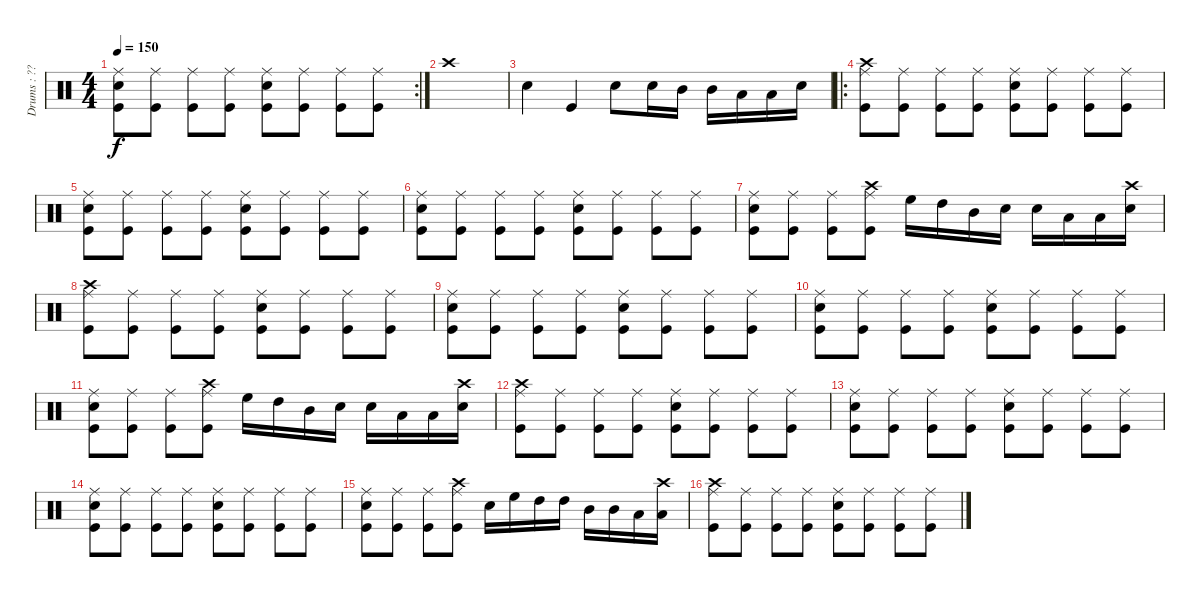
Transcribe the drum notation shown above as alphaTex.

\track ("Drums : ???" "Drums : ??") {instrument percussion}
\staff {score}
\articulation defaults
\rc 2
\ts (4 4)
\tempo 150
\clef neutral
\ks c
("Snare (hit) 2" "Ride (middle)" "Kick (hit)").8{dy f} ("Ride (middle)" "Kick (hit)").8 ("Ride (middle)" "Kick (hit)").8 ("Ride (middle)" "Kick (hit)").8 ("Snare (hit) 2" "Ride (middle)" "Kick (hit)").8 ("Ride (middle)" "Kick (hit)").8 ("Ride (middle)" "Kick (hit)").8 ("Ride (middle)" "Kick (hit)").8 |
"Crash high (hit)".1 |
"Snare (hit) 2".4 "Kick (hit)".4 "Snare (hit) 2".8 "Snare (hit) 2".16 "Mid Tom (hit)".16 "Mid Tom (hit)".16 "Low Tom (hit)".16 "Low Tom (hit)".16 "Snare (hit) 2".16 |
\ro
("Crash high (hit)" "Ride (middle)" "Kick (hit)").8 ("Ride (middle)" "Kick (hit)").8 ("Ride (middle)" "Kick (hit)").8 ("Ride (middle)" "Kick (hit)").8 ("Snare (hit) 2" "Ride (middle)" "Kick (hit)").8 ("Ride (middle)" "Kick (hit)").8 ("Ride (middle)" "Kick (hit)").8 ("Ride (middle)" "Kick (hit)").8 |
("Snare (hit) 2" "Ride (middle)" "Kick (hit)").8 ("Ride (middle)" "Kick (hit)").8 ("Ride (middle)" "Kick (hit)").8 ("Ride (middle)" "Kick (hit)").8 ("Snare (hit) 2" "Ride (middle)" "Kick (hit)").8 ("Ride (middle)" "Kick (hit)").8 ("Ride (middle)" "Kick (hit)").8 ("Ride (middle)" "Kick (hit)").8 |
("Snare (hit) 2" "Ride (middle)" "Kick (hit)").8 ("Ride (middle)" "Kick (hit)").8 ("Ride (middle)" "Kick (hit)").8 ("Ride (middle)" "Kick (hit)").8 ("Snare (hit) 2" "Ride (middle)" "Kick (hit)").8 ("Ride (middle)" "Kick (hit)").8 ("Ride (middle)" "Kick (hit)").8 ("Ride (middle)" "Kick (hit)").8 |
("Snare (hit) 2" "Ride (middle)" "Kick (hit)").8 ("Ride (middle)" "Kick (hit)").8 ("Ride (middle)" "Kick (hit)").8 ("Crash high (hit)" "Ride (middle)" "Kick (hit)").8 "High Floor Tom (hit)".16 "High Tom (hit)".16 "Mid Tom (hit)".16 "Snare (hit) 2".16 "Snare (hit) 2".16 "Low Tom (hit)".16 "Low Tom (hit)".16 ("Crash high (hit)" "Snare (hit) 2").16 |
("Crash high (hit)" "Ride (middle)" "Kick (hit)").8 ("Ride (middle)" "Kick (hit)").8 ("Ride (middle)" "Kick (hit)").8 ("Ride (middle)" "Kick (hit)").8 ("Snare (hit) 2" "Ride (middle)" "Kick (hit)").8 ("Ride (middle)" "Kick (hit)").8 ("Ride (middle)" "Kick (hit)").8 ("Ride (middle)" "Kick (hit)").8 |
("Snare (hit) 2" "Ride (middle)" "Kick (hit)").8 ("Ride (middle)" "Kick (hit)").8 ("Ride (middle)" "Kick (hit)").8 ("Ride (middle)" "Kick (hit)").8 ("Snare (hit) 2" "Ride (middle)" "Kick (hit)").8 ("Ride (middle)" "Kick (hit)").8 ("Ride (middle)" "Kick (hit)").8 ("Ride (middle)" "Kick (hit)").8 |
("Snare (hit) 2" "Ride (middle)" "Kick (hit)").8 ("Ride (middle)" "Kick (hit)").8 ("Ride (middle)" "Kick (hit)").8 ("Ride (middle)" "Kick (hit)").8 ("Snare (hit) 2" "Ride (middle)" "Kick (hit)").8 ("Ride (middle)" "Kick (hit)").8 ("Ride (middle)" "Kick (hit)").8 ("Ride (middle)" "Kick (hit)").8 |
("Snare (hit) 2" "Ride (middle)" "Kick (hit)").8 ("Ride (middle)" "Kick (hit)").8 ("Ride (middle)" "Kick (hit)").8 ("Crash high (hit)" "Ride (middle)" "Kick (hit)").8 "High Floor Tom (hit)".16 "High Tom (hit)".16 "Mid Tom (hit)".16 "Snare (hit) 2".16 "Snare (hit) 2".16 "Low Tom (hit)".16 "Low Tom (hit)".16 ("Crash high (hit)" "Snare (hit) 2").16 |
("Crash high (hit)" "Ride (middle)" "Kick (hit)").8 ("Ride (middle)" "Kick (hit)").8 ("Ride (middle)" "Kick (hit)").8 ("Ride (middle)" "Kick (hit)").8 ("Snare (hit) 2" "Ride (middle)" "Kick (hit)").8 ("Ride (middle)" "Kick (hit)").8 ("Ride (middle)" "Kick (hit)").8 ("Ride (middle)" "Kick (hit)").8 |
("Snare (hit) 2" "Ride (middle)" "Kick (hit)").8 ("Ride (middle)" "Kick (hit)").8 ("Ride (middle)" "Kick (hit)").8 ("Ride (middle)" "Kick (hit)").8 ("Snare (hit) 2" "Ride (middle)" "Kick (hit)").8 ("Ride (middle)" "Kick (hit)").8 ("Ride (middle)" "Kick (hit)").8 ("Ride (middle)" "Kick (hit)").8 |
("Snare (hit) 2" "Ride (middle)" "Kick (hit)").8 ("Ride (middle)" "Kick (hit)").8 ("Ride (middle)" "Kick (hit)").8 ("Ride (middle)" "Kick (hit)").8 ("Snare (hit) 2" "Ride (middle)" "Kick (hit)").8 ("Ride (middle)" "Kick (hit)").8 ("Ride (middle)" "Kick (hit)").8 ("Ride (middle)" "Kick (hit)").8 |
("Snare (hit) 2" "Ride (middle)" "Kick (hit)").8 ("Ride (middle)" "Kick (hit)").8 ("Ride (middle)" "Kick (hit)").8 ("Crash high (hit)" "Ride (middle)" "Kick (hit)").8 "Snare (hit) 2".16 "High Floor Tom (hit)".16 "High Tom (hit)".16 "High Tom (hit)".16 "Mid Tom (hit)".16 "Mid Tom (hit)".16 "Low Tom (hit)".16 ("Crash high (hit)" "Low Tom (hit)").16 |
("Crash high (hit)" "Ride (middle)" "Kick (hit)").8 ("Ride (middle)" "Kick (hit)").8 ("Ride (middle)" "Kick (hit)").8 ("Ride (middle)" "Kick (hit)").8 ("Snare (hit) 2" "Ride (middle)" "Kick (hit)").8 ("Ride (middle)" "Kick (hit)").8 ("Ride (middle)" "Kick (hit)").8 ("Ride (middle)" "Kick (hit)").8
